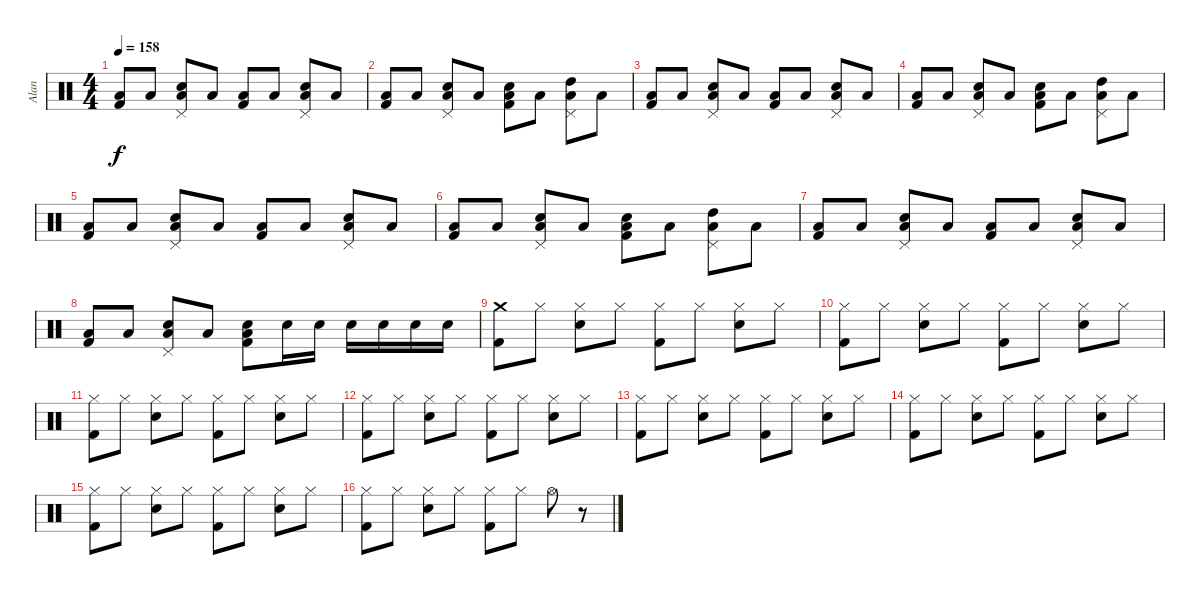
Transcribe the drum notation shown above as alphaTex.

\track ("Alan" "Alan") {instrument percussion}
\staff {score}
\articulation defaults
\ts (4 4)
\tempo 158
\clef neutral
\ks c
("Low Tom (hit)" "Kick (hit) 2").8{dy f} "Low Tom (hit)".8 ("Low Tom (hit)" "Electric Snare (hit)" "Pedal Hi-Hat (hit)").8 "Low Tom (hit)".8 ("Low Tom (hit)" "Kick (hit) 2").8 "Low Tom (hit)".8 ("Low Tom (hit)" "Electric Snare (hit)" "Pedal Hi-Hat (hit)").8 "Low Tom (hit)".8 |
("Low Tom (hit)" "Kick (hit) 2").8 "Low Tom (hit)".8 ("Low Tom (hit)" "Electric Snare (hit)" "Pedal Hi-Hat (hit)").8 "Low Tom (hit)".8 ("Low Tom (hit)" "Kick (hit) 2" "Electric Snare (hit)").8 "Low Tom (hit)".8 ("Low Tom (hit)" "High Tom (hit)" "Pedal Hi-Hat (hit)").8 "Low Tom (hit)".8 |
("Low Tom (hit)" "Kick (hit) 2").8 "Low Tom (hit)".8 ("Low Tom (hit)" "Electric Snare (hit)" "Pedal Hi-Hat (hit)").8 "Low Tom (hit)".8 ("Low Tom (hit)" "Kick (hit) 2").8 "Low Tom (hit)".8 ("Low Tom (hit)" "Electric Snare (hit)" "Pedal Hi-Hat (hit)").8 "Low Tom (hit)".8 |
("Low Tom (hit)" "Kick (hit) 2").8 "Low Tom (hit)".8 ("Low Tom (hit)" "Electric Snare (hit)" "Pedal Hi-Hat (hit)").8 "Low Tom (hit)".8 ("Low Tom (hit)" "Kick (hit) 2" "Electric Snare (hit)").8 "Low Tom (hit)".8 ("Low Tom (hit)" "High Tom (hit)" "Pedal Hi-Hat (hit)").8 "Low Tom (hit)".8 |
("Low Tom (hit)" "Kick (hit) 2").8 "Low Tom (hit)".8 ("Low Tom (hit)" "Electric Snare (hit)" "Pedal Hi-Hat (hit)").8 "Low Tom (hit)".8 ("Low Tom (hit)" "Kick (hit) 2").8 "Low Tom (hit)".8 ("Low Tom (hit)" "Electric Snare (hit)" "Pedal Hi-Hat (hit)").8 "Low Tom (hit)".8 |
("Low Tom (hit)" "Kick (hit) 2").8 "Low Tom (hit)".8 ("Low Tom (hit)" "Electric Snare (hit)" "Pedal Hi-Hat (hit)").8 "Low Tom (hit)".8 ("Low Tom (hit)" "Kick (hit) 2" "Electric Snare (hit)").8 "Low Tom (hit)".8 ("Low Tom (hit)" "High Tom (hit)" "Pedal Hi-Hat (hit)").8 "Low Tom (hit)".8 |
("Low Tom (hit)" "Kick (hit) 2").8 "Low Tom (hit)".8 ("Low Tom (hit)" "Electric Snare (hit)" "Pedal Hi-Hat (hit)").8 "Low Tom (hit)".8 ("Low Tom (hit)" "Kick (hit) 2").8 "Low Tom (hit)".8 ("Low Tom (hit)" "Electric Snare (hit)" "Pedal Hi-Hat (hit)").8 "Low Tom (hit)".8 |
("Low Tom (hit)" "Kick (hit) 2").8 "Low Tom (hit)".8 ("Low Tom (hit)" "Electric Snare (hit)" "Pedal Hi-Hat (hit)").8 "Low Tom (hit)".8 ("Low Tom (hit)" "Kick (hit) 2" "Electric Snare (hit)").8 "Electric Snare (hit)".16 "Electric Snare (hit)".16 "Electric Snare (hit)".16 "Electric Snare (hit)".16 "Electric Snare (hit)".16 "Electric Snare (hit)".16 |
("Kick (hit) 2" "Crash medium (hit)").8 "Hi-Hat (closed)".8 ("Hi-Hat (closed)" "Electric Snare (hit)").8 "Hi-Hat (closed)".8 ("Kick (hit) 2" "Hi-Hat (closed)").8 "Hi-Hat (closed)".8 ("Hi-Hat (closed)" "Electric Snare (hit)").8 "Hi-Hat (closed)".8 |
("Kick (hit) 2" "Hi-Hat (closed)").8 "Hi-Hat (closed)".8 ("Hi-Hat (closed)" "Electric Snare (hit)").8 "Hi-Hat (closed)".8 ("Kick (hit) 2" "Hi-Hat (closed)").8 "Hi-Hat (closed)".8 ("Hi-Hat (closed)" "Electric Snare (hit)").8 "Hi-Hat (closed)".8 |
("Kick (hit) 2" "Hi-Hat (closed)").8 "Hi-Hat (closed)".8 ("Hi-Hat (closed)" "Electric Snare (hit)").8 "Hi-Hat (closed)".8 ("Kick (hit) 2" "Hi-Hat (closed)").8 "Hi-Hat (closed)".8 ("Hi-Hat (closed)" "Electric Snare (hit)").8 "Hi-Hat (closed)".8 |
("Kick (hit) 2" "Hi-Hat (closed)").8 "Hi-Hat (closed)".8 ("Hi-Hat (closed)" "Electric Snare (hit)").8 "Hi-Hat (closed)".8 ("Kick (hit) 2" "Hi-Hat (closed)").8 "Hi-Hat (closed)".8 ("Hi-Hat (closed)" "Electric Snare (hit)").8 "Hi-Hat (closed)".8 |
("Kick (hit) 2" "Hi-Hat (closed)").8 "Hi-Hat (closed)".8 ("Hi-Hat (closed)" "Electric Snare (hit)").8 "Hi-Hat (closed)".8 ("Kick (hit) 2" "Hi-Hat (closed)").8 "Hi-Hat (closed)".8 ("Hi-Hat (closed)" "Electric Snare (hit)").8 "Hi-Hat (closed)".8 |
("Kick (hit) 2" "Hi-Hat (closed)").8 "Hi-Hat (closed)".8 ("Hi-Hat (closed)" "Electric Snare (hit)").8 "Hi-Hat (closed)".8 ("Kick (hit) 2" "Hi-Hat (closed)").8 "Hi-Hat (closed)".8 ("Hi-Hat (closed)" "Electric Snare (hit)").8 "Hi-Hat (closed)".8 |
("Kick (hit) 2" "Hi-Hat (closed)").8 "Hi-Hat (closed)".8 ("Hi-Hat (closed)" "Electric Snare (hit)").8 "Hi-Hat (closed)".8 ("Kick (hit) 2" "Hi-Hat (closed)").8 "Hi-Hat (closed)".8 ("Hi-Hat (closed)" "Electric Snare (hit)").8 "Hi-Hat (closed)".8 |
("Kick (hit) 2" "Hi-Hat (closed)").8 "Hi-Hat (closed)".8 ("Hi-Hat (closed)" "Electric Snare (hit)").8 "Hi-Hat (closed)".8 ("Kick (hit) 2" "Hi-Hat (closed)").8 "Hi-Hat (closed)".8 "Hi-Hat (open)".8 r.8
